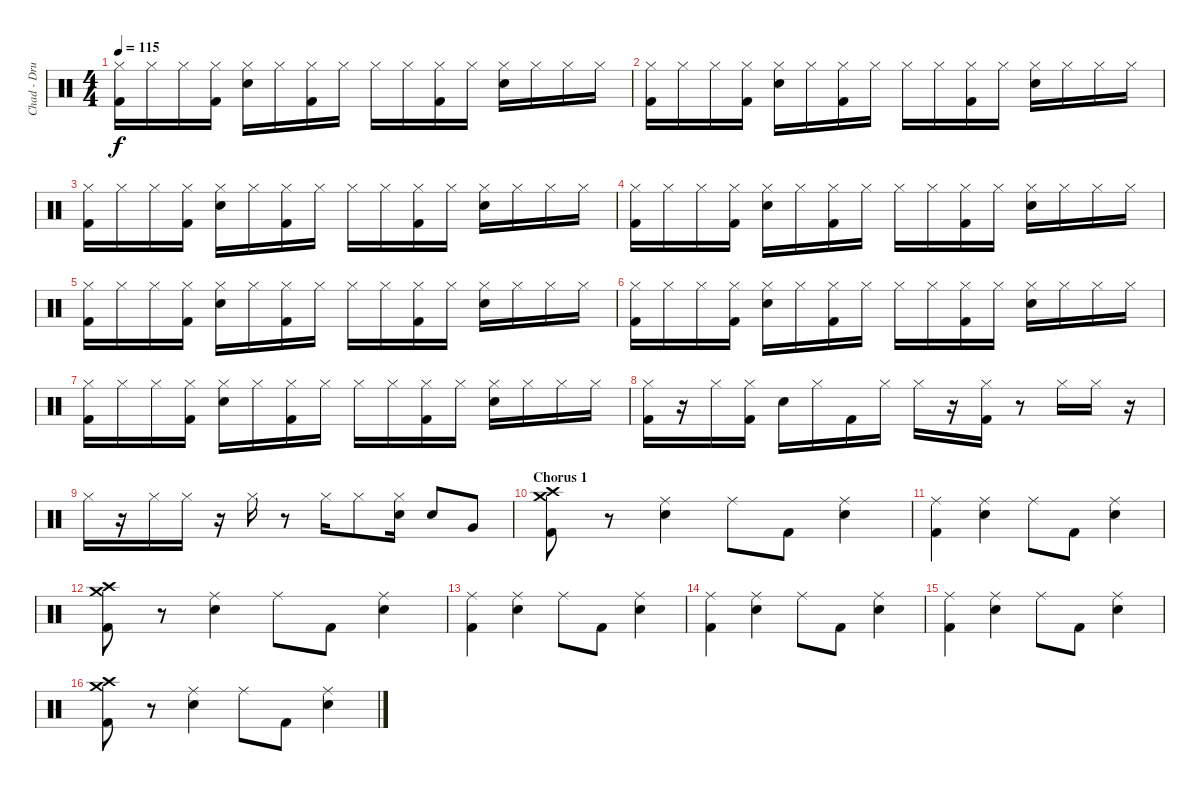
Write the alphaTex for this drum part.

\track ("Chad - Drums" "Chad - Dru") {instrument percussion}
\staff {score}
\articulation defaults
\ts (4 4)
\tempo 115
\clef neutral
\ks c
("Hi-Hat (closed)" "Kick (hit) 2").16{dy f} "Hi-Hat (closed)".16 "Hi-Hat (closed)".16 ("Hi-Hat (closed)" "Kick (hit) 2").16 ("Hi-Hat (closed)" "Electric Snare (hit)").16 "Hi-Hat (closed)".16 ("Hi-Hat (closed)" "Kick (hit) 2").16 "Hi-Hat (closed)".16 "Hi-Hat (closed)".16 "Hi-Hat (closed)".16 ("Hi-Hat (closed)" "Kick (hit) 2").16 "Hi-Hat (closed)".16 ("Hi-Hat (closed)" "Electric Snare (hit)").16 "Hi-Hat (closed)".16 "Hi-Hat (closed)".16 "Hi-Hat (closed)".16 |
("Hi-Hat (closed)" "Kick (hit) 2").16 "Hi-Hat (closed)".16 "Hi-Hat (closed)".16 ("Hi-Hat (closed)" "Kick (hit) 2").16 ("Hi-Hat (closed)" "Electric Snare (hit)").16 "Hi-Hat (closed)".16 ("Hi-Hat (closed)" "Kick (hit) 2").16 "Hi-Hat (closed)".16 "Hi-Hat (closed)".16 "Hi-Hat (closed)".16 ("Hi-Hat (closed)" "Kick (hit) 2").16 "Hi-Hat (closed)".16 ("Hi-Hat (closed)" "Electric Snare (hit)").16 "Hi-Hat (closed)".16 "Hi-Hat (closed)".16 "Hi-Hat (closed)".16 |
("Hi-Hat (closed)" "Kick (hit) 2").16 "Hi-Hat (closed)".16 "Hi-Hat (closed)".16 ("Hi-Hat (closed)" "Kick (hit) 2").16 ("Hi-Hat (closed)" "Electric Snare (hit)").16 "Hi-Hat (closed)".16 ("Hi-Hat (closed)" "Kick (hit) 2").16 "Hi-Hat (closed)".16 "Hi-Hat (closed)".16 "Hi-Hat (closed)".16 ("Hi-Hat (closed)" "Kick (hit) 2").16 "Hi-Hat (closed)".16 ("Hi-Hat (closed)" "Electric Snare (hit)").16 "Hi-Hat (closed)".16 "Hi-Hat (closed)".16 "Hi-Hat (closed)".16 |
("Hi-Hat (closed)" "Kick (hit) 2").16 "Hi-Hat (closed)".16 "Hi-Hat (closed)".16 ("Hi-Hat (closed)" "Kick (hit) 2").16 ("Hi-Hat (closed)" "Electric Snare (hit)").16 "Hi-Hat (closed)".16 ("Hi-Hat (closed)" "Kick (hit) 2").16 "Hi-Hat (closed)".16 "Hi-Hat (closed)".16 "Hi-Hat (closed)".16 ("Hi-Hat (closed)" "Kick (hit) 2").16 "Hi-Hat (closed)".16 ("Hi-Hat (closed)" "Electric Snare (hit)").16 "Hi-Hat (closed)".16 "Hi-Hat (closed)".16 "Hi-Hat (closed)".16 |
("Hi-Hat (closed)" "Kick (hit) 2").16 "Hi-Hat (closed)".16 "Hi-Hat (closed)".16 ("Hi-Hat (closed)" "Kick (hit) 2").16 ("Hi-Hat (closed)" "Electric Snare (hit)").16 "Hi-Hat (closed)".16 ("Hi-Hat (closed)" "Kick (hit) 2").16 "Hi-Hat (closed)".16 "Hi-Hat (closed)".16 "Hi-Hat (closed)".16 ("Hi-Hat (closed)" "Kick (hit) 2").16 "Hi-Hat (closed)".16 ("Hi-Hat (closed)" "Electric Snare (hit)").16 "Hi-Hat (closed)".16 "Hi-Hat (closed)".16 "Hi-Hat (closed)".16 |
("Hi-Hat (closed)" "Kick (hit) 2").16 "Hi-Hat (closed)".16 "Hi-Hat (closed)".16 ("Hi-Hat (closed)" "Kick (hit) 2").16 ("Hi-Hat (closed)" "Electric Snare (hit)").16 "Hi-Hat (closed)".16 ("Hi-Hat (closed)" "Kick (hit) 2").16 "Hi-Hat (closed)".16 "Hi-Hat (closed)".16 "Hi-Hat (closed)".16 ("Hi-Hat (closed)" "Kick (hit) 2").16 "Hi-Hat (closed)".16 ("Hi-Hat (closed)" "Electric Snare (hit)").16 "Hi-Hat (closed)".16 "Hi-Hat (closed)".16 "Hi-Hat (closed)".16 |
("Hi-Hat (closed)" "Kick (hit) 2").16 "Hi-Hat (closed)".16 "Hi-Hat (closed)".16 ("Hi-Hat (closed)" "Kick (hit) 2").16 ("Hi-Hat (closed)" "Electric Snare (hit)").16 "Hi-Hat (closed)".16 ("Hi-Hat (closed)" "Kick (hit) 2").16 "Hi-Hat (closed)".16 "Hi-Hat (closed)".16 "Hi-Hat (closed)".16 ("Hi-Hat (closed)" "Kick (hit) 2").16 "Hi-Hat (closed)".16 ("Hi-Hat (closed)" "Electric Snare (hit)").16 "Hi-Hat (closed)".16 "Hi-Hat (closed)".16 "Hi-Hat (closed)".16 |
("Hi-Hat (closed)" "Kick (hit) 2").16 r.16 "Hi-Hat (closed)".16 ("Hi-Hat (closed)" "Kick (hit) 2").16 "Electric Snare (hit)".16 "Hi-Hat (closed)".16 "Kick (hit) 2".16 "Hi-Hat (closed)".16 "Hi-Hat (closed)".16 r.16 ("Hi-Hat (closed)" "Kick (hit) 2").16 r.8 "Hi-Hat (closed)".16 "Hi-Hat (closed)".16 r.16 |
"Hi-Hat (closed)".16 r.16 "Hi-Hat (closed)".16 "Hi-Hat (closed)".16 r.16 "Hi-Hat (closed)".16 r.8 "Hi-Hat (closed)".16 "Hi-Hat (closed)".8 ("Hi-Hat (closed)" "Electric Snare (hit)").16 "Electric Snare (hit)".8 "Very Low Tom (hit)".8 |
\section ("" "Chorus 1")
("Crash high (hit)" "Crash medium (hit)" "Kick (hit) 2").8 r.8 ("Ride (middle)" "Electric Snare (hit)").4 "Ride (middle)".8 "Kick (hit) 2".8 ("Ride (middle)" "Electric Snare (hit)").4 |
("Ride (middle)" "Kick (hit) 2").4 ("Ride (middle)" "Electric Snare (hit)").4 "Ride (middle)".8 "Kick (hit) 2".8 ("Ride (middle)" "Electric Snare (hit)").4 |
("Crash high (hit)" "Crash medium (hit)" "Kick (hit) 2").8 r.8 ("Electric Snare (hit)" "Ride (middle)").4 "Ride (middle)".8 "Kick (hit) 2".8 ("Electric Snare (hit)" "Ride (middle)").4 |
("Kick (hit) 2" "Ride (middle)").4 ("Electric Snare (hit)" "Ride (middle)").4 "Ride (middle)".8 "Kick (hit) 2".8 ("Electric Snare (hit)" "Ride (middle)").4 |
("Ride (middle)" "Kick (hit) 2").4 ("Electric Snare (hit)" "Ride (middle)").4 "Ride (middle)".8 "Kick (hit) 2".8 ("Electric Snare (hit)" "Ride (middle)").4 |
("Kick (hit) 2" "Ride (middle)").4 ("Electric Snare (hit)" "Ride (middle)").4 "Ride (middle)".8 "Kick (hit) 2".8 ("Electric Snare (hit)" "Ride (middle)").4 |
("Crash high (hit)" "Crash medium (hit)" "Kick (hit) 2").8 r.8 ("Electric Snare (hit)" "Ride (middle)").4 "Ride (middle)".8 "Kick (hit) 2".8 ("Electric Snare (hit)" "Ride (middle)").4
